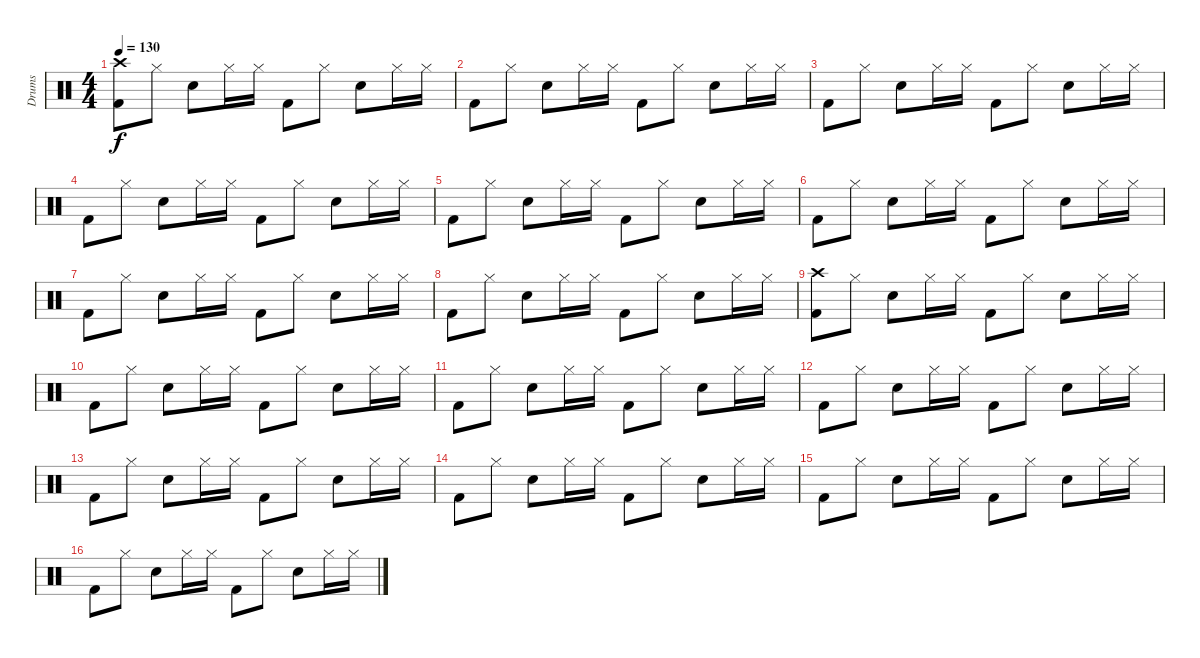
\track ("Drums" "Drums") {instrument percussion}
\staff {score}
\articulation defaults
\ts (4 4)
\tempo 130
\clef neutral
\ks c
("Crash high (hit)" "Kick (hit) 2").8{dy f} "Hi-Hat (closed)".8 "Snare (hit) 2".8 "Hi-Hat (closed)".16 "Hi-Hat (closed)".16 "Kick (hit) 2".8 "Hi-Hat (closed)".8 "Snare (hit) 2".8 "Hi-Hat (closed)".16 "Hi-Hat (closed)".16 |
"Kick (hit) 2".8 "Hi-Hat (closed)".8 "Snare (hit) 2".8 "Hi-Hat (closed)".16 "Hi-Hat (closed)".16 "Kick (hit) 2".8 "Hi-Hat (closed)".8 "Snare (hit) 2".8 "Hi-Hat (closed)".16 "Hi-Hat (closed)".16 |
"Kick (hit) 2".8 "Hi-Hat (closed)".8 "Snare (hit) 2".8 "Hi-Hat (closed)".16 "Hi-Hat (closed)".16 "Kick (hit) 2".8 "Hi-Hat (closed)".8 "Snare (hit) 2".8 "Hi-Hat (closed)".16 "Hi-Hat (closed)".16 |
"Kick (hit) 2".8 "Hi-Hat (closed)".8 "Snare (hit) 2".8 "Hi-Hat (closed)".16 "Hi-Hat (closed)".16 "Kick (hit) 2".8 "Hi-Hat (closed)".8 "Snare (hit) 2".8 "Hi-Hat (closed)".16 "Hi-Hat (closed)".16 |
"Kick (hit) 2".8 "Hi-Hat (closed)".8 "Snare (hit) 2".8 "Hi-Hat (closed)".16 "Hi-Hat (closed)".16 "Kick (hit) 2".8 "Hi-Hat (closed)".8 "Snare (hit) 2".8 "Hi-Hat (closed)".16 "Hi-Hat (closed)".16 |
"Kick (hit) 2".8 "Hi-Hat (closed)".8 "Snare (hit) 2".8 "Hi-Hat (closed)".16 "Hi-Hat (closed)".16 "Kick (hit) 2".8 "Hi-Hat (closed)".8 "Snare (hit) 2".8 "Hi-Hat (closed)".16 "Hi-Hat (closed)".16 |
"Kick (hit) 2".8 "Hi-Hat (closed)".8 "Snare (hit) 2".8 "Hi-Hat (closed)".16 "Hi-Hat (closed)".16 "Kick (hit) 2".8 "Hi-Hat (closed)".8 "Snare (hit) 2".8 "Hi-Hat (closed)".16 "Hi-Hat (closed)".16 |
"Kick (hit) 2".8 "Hi-Hat (closed)".8 "Snare (hit) 2".8 "Hi-Hat (closed)".16 "Hi-Hat (closed)".16 "Kick (hit) 2".8 "Hi-Hat (closed)".8 "Snare (hit) 2".8 "Hi-Hat (closed)".16 "Hi-Hat (closed)".16 |
("Crash high (hit)" "Kick (hit) 2").8 "Hi-Hat (closed)".8 "Snare (hit) 2".8 "Hi-Hat (closed)".16 "Hi-Hat (closed)".16 "Kick (hit) 2".8 "Hi-Hat (closed)".8 "Snare (hit) 2".8 "Hi-Hat (closed)".16 "Hi-Hat (closed)".16 |
"Kick (hit) 2".8 "Hi-Hat (closed)".8 "Snare (hit) 2".8 "Hi-Hat (closed)".16 "Hi-Hat (closed)".16 "Kick (hit) 2".8 "Hi-Hat (closed)".8 "Snare (hit) 2".8 "Hi-Hat (closed)".16 "Hi-Hat (closed)".16 |
"Kick (hit) 2".8 "Hi-Hat (closed)".8 "Snare (hit) 2".8 "Hi-Hat (closed)".16 "Hi-Hat (closed)".16 "Kick (hit) 2".8 "Hi-Hat (closed)".8 "Snare (hit) 2".8 "Hi-Hat (closed)".16 "Hi-Hat (closed)".16 |
"Kick (hit) 2".8 "Hi-Hat (closed)".8 "Snare (hit) 2".8 "Hi-Hat (closed)".16 "Hi-Hat (closed)".16 "Kick (hit) 2".8 "Hi-Hat (closed)".8 "Snare (hit) 2".8 "Hi-Hat (closed)".16 "Hi-Hat (closed)".16 |
"Kick (hit) 2".8 "Hi-Hat (closed)".8 "Snare (hit) 2".8 "Hi-Hat (closed)".16 "Hi-Hat (closed)".16 "Kick (hit) 2".8 "Hi-Hat (closed)".8 "Snare (hit) 2".8 "Hi-Hat (closed)".16 "Hi-Hat (closed)".16 |
"Kick (hit) 2".8 "Hi-Hat (closed)".8 "Snare (hit) 2".8 "Hi-Hat (closed)".16 "Hi-Hat (closed)".16 "Kick (hit) 2".8 "Hi-Hat (closed)".8 "Snare (hit) 2".8 "Hi-Hat (closed)".16 "Hi-Hat (closed)".16 |
"Kick (hit) 2".8 "Hi-Hat (closed)".8 "Snare (hit) 2".8 "Hi-Hat (closed)".16 "Hi-Hat (closed)".16 "Kick (hit) 2".8 "Hi-Hat (closed)".8 "Snare (hit) 2".8 "Hi-Hat (closed)".16 "Hi-Hat (closed)".16 |
"Kick (hit) 2".8 "Hi-Hat (closed)".8 "Snare (hit) 2".8 "Hi-Hat (closed)".16 "Hi-Hat (closed)".16 "Kick (hit) 2".8 "Hi-Hat (closed)".8 "Snare (hit) 2".8 "Hi-Hat (closed)".16 "Hi-Hat (closed)".16
